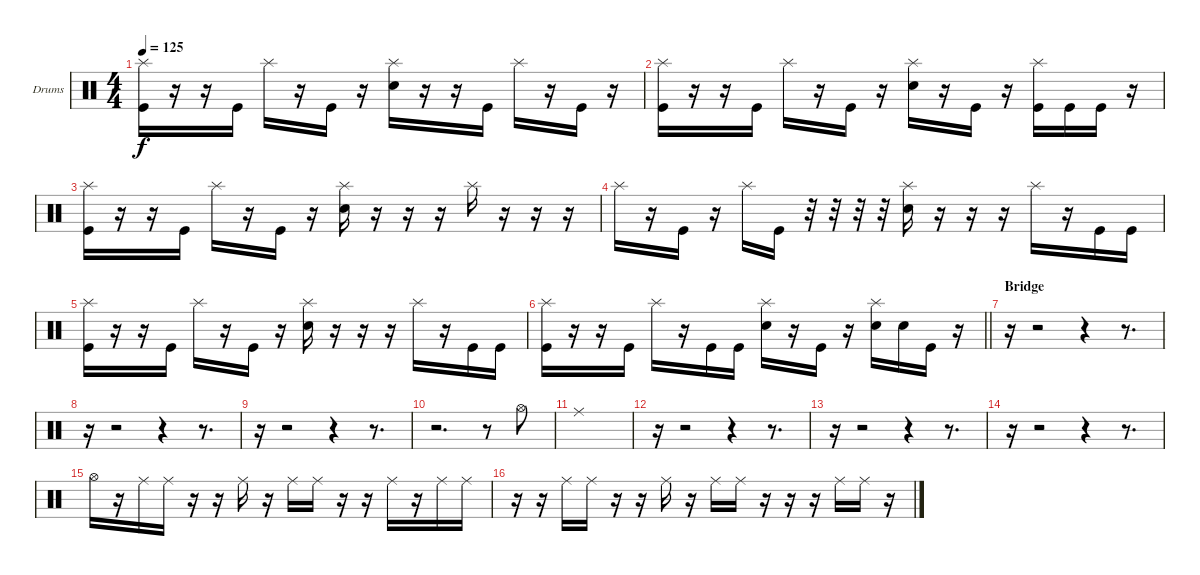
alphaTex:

\bracketExtendMode groupsimilarinstruments
\firstSystemTrackNameOrientation horizontal
\otherSystemsTrackNameOrientation horizontal
\track ("Drumkit" "Drums") {instrument percussion}
\staff {score}
\articulation defaults
\ts (4 4)
\tempo 125
\clef neutral
\ks c
("Kick (hit)" "Splash (hit)").16{dy f} r.16 r.16 "Kick (hit)".16 "Splash (hit)".16 r.16 "Kick (hit)".16 r.16 ("Snare (hit) 2" "Splash (hit)").16 r.16 r.16 "Kick (hit)".16 "Splash (hit)".16 r.16 "Kick (hit)".16 r.16 |
("Kick (hit)" "Splash (hit)").16 r.16 r.16 "Kick (hit)".16 "Splash (hit)".16 r.16 "Kick (hit)".16 r.16 ("Snare (hit) 2" "Splash (hit)").16 r.16 "Kick (hit)".16 r.16 ("Kick (hit)" "Splash (hit)").16 "Kick (hit)".16 "Kick (hit)".16 r.16 |
("Kick (hit)" "Splash (hit)").16 r.16 r.16 "Kick (hit)".16 "Splash (hit)".16 r.16 "Kick (hit)".16 r.16 ("Snare (hit) 2" "Splash (hit)").16 r.16 r.16 r.16 "Splash (hit)".16 r.16 r.16 r.16 |
"Splash (hit)".16 r.16 "Kick (hit)".16 r.16 "Splash (hit)".16 "Kick (hit)".16 r.32 r.32 r.32 r.32 ("Snare (hit) 2" "Splash (hit)").16 r.16 r.16 r.16 "Splash (hit)".16 r.16 "Kick (hit)".16 "Kick (hit)".16 |
("Kick (hit)" "Splash (hit)").16 r.16 r.16 "Kick (hit)".16 "Splash (hit)".16 r.16 "Kick (hit)".16 r.16 ("Snare (hit) 2" "Splash (hit)").16 r.16 r.16 r.16 "Splash (hit)".16 r.16 "Kick (hit)".16 "Kick (hit)".16 |
\barLineRight lightlight
("Kick (hit)" "Splash (hit)").16 r.16 r.16 "Kick (hit)".16 "Splash (hit)".16 r.16 "Kick (hit)".16 "Kick (hit)".16 ("Snare (hit) 2" "Splash (hit)").16 r.16 "Kick (hit)".16 r.16 ("Snare (hit) 2" "Splash (hit)").16 "Snare (hit) 2".16 "Kick (hit)".16 r.16 |
\section ("" "Bridge")
r.16 r.2 r.4 r.8{d} |
r.16 r.2 r.4 r.8{d} |
r.16 r.2 r.4 r.8{d} |
r.2{d} r.8 "Hi-Hat (open)".8 |
"Ride (middle)".1 |
r.16 r.2 r.4 r.8{d} |
r.16 r.2 r.4 r.8{d} |
r.16 r.2 r.4 r.8{d} |
"Hi-Hat (open)".16 r.16 "Ride (middle)".16 "Ride (middle)".16 r.16 r.16 "Ride (middle)".16 r.16 "Ride (middle)".16 "Ride (middle)".16 r.16 r.16 "Ride (middle)".16 r.16 "Ride (middle)".16 "Ride (middle)".16 |
r.16 r.16 "Ride (middle)".16 "Ride (middle)".16 r.16 r.16 "Ride (middle)".16 r.16 "Ride (middle)".16 "Ride (middle)".16 r.16 r.16 r.16 "Ride (middle)".16 "Ride (middle)".16 r.16
